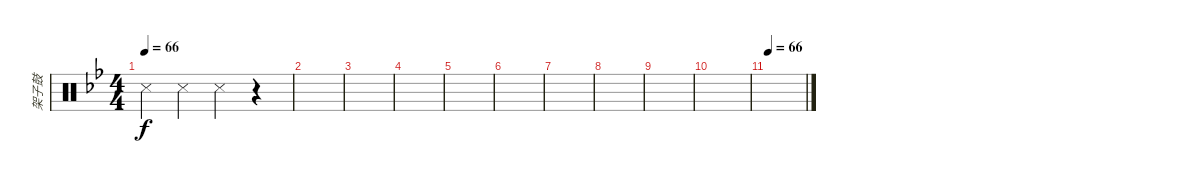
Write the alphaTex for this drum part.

\track ("架子鼓" "架子鼓") {instrument percussion}
\staff {score}
\articulation defaults
\ts (4 4)
\tempo 66
\tempo 62
\tempo 66
\clef neutral
\ks bb "Snare (side stick) 3".4{dy f} "Snare (side stick) 3".4 "Snare (side stick) 3".4
r.4 |
|
|
|
|
|
|
|
|
|
\tempo 66
